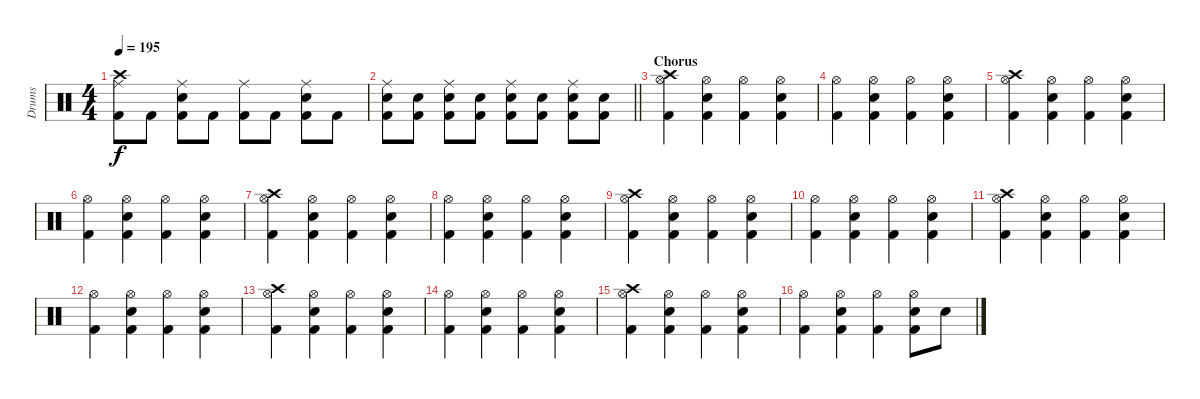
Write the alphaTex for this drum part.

\track ("Drums" "Drums") {instrument percussion}
\staff {score}
\articulation defaults
\ts (4 4)
\tempo 195
\clef neutral
\ks c
("Crash high (hit)" "Ride (middle)" "Kick (hit) 2").8{dy f} "Kick (hit) 2".8 ("Ride (middle)" "Snare (hit) 2" "Kick (hit) 2").8 "Kick (hit) 2".8 ("Ride (middle)" "Kick (hit) 2").8 "Kick (hit) 2".8 ("Ride (middle)" "Snare (hit) 2" "Kick (hit) 2").8 "Kick (hit) 2".8 |
\barLineRight lightlight
("Ride (middle)" "Snare (hit) 2" "Kick (hit) 2").8 ("Snare (hit) 2" "Kick (hit) 2").8 ("Ride (middle)" "Snare (hit) 2" "Kick (hit) 2").8 ("Snare (hit) 2" "Kick (hit) 2").8 ("Ride (middle)" "Snare (hit) 2" "Kick (hit) 2").8 ("Snare (hit) 2" "Kick (hit) 2").8 ("Ride (middle)" "Snare (hit) 2" "Kick (hit) 2").8 ("Snare (hit) 2" "Kick (hit) 2").8 |
\section ("" "Chorus")
("Crash high (hit)" "Hi-Hat (open)" "Kick (hit) 2").4 ("Hi-Hat (open)" "Snare (hit) 2" "Kick (hit) 2").4 ("Hi-Hat (open)" "Kick (hit) 2").4 ("Hi-Hat (open)" "Snare (hit) 2" "Kick (hit) 2").4 |
("Hi-Hat (open)" "Kick (hit) 2").4 ("Hi-Hat (open)" "Snare (hit) 2" "Kick (hit) 2").4 ("Hi-Hat (open)" "Kick (hit) 2").4 ("Hi-Hat (open)" "Snare (hit) 2" "Kick (hit) 2").4 |
("Crash high (hit)" "Hi-Hat (open)" "Kick (hit) 2").4 ("Hi-Hat (open)" "Snare (hit) 2" "Kick (hit) 2").4 ("Hi-Hat (open)" "Kick (hit) 2").4 ("Hi-Hat (open)" "Snare (hit) 2" "Kick (hit) 2").4 |
("Hi-Hat (open)" "Kick (hit) 2").4 ("Hi-Hat (open)" "Snare (hit) 2" "Kick (hit) 2").4 ("Hi-Hat (open)" "Kick (hit) 2").4 ("Hi-Hat (open)" "Snare (hit) 2" "Kick (hit) 2").4 |
("Crash high (hit)" "Hi-Hat (open)" "Kick (hit) 2").4 ("Hi-Hat (open)" "Snare (hit) 2" "Kick (hit) 2").4 ("Hi-Hat (open)" "Kick (hit) 2").4 ("Hi-Hat (open)" "Snare (hit) 2" "Kick (hit) 2").4 |
("Hi-Hat (open)" "Kick (hit) 2").4 ("Hi-Hat (open)" "Snare (hit) 2" "Kick (hit) 2").4 ("Hi-Hat (open)" "Kick (hit) 2").4 ("Hi-Hat (open)" "Snare (hit) 2" "Kick (hit) 2").4 |
("Crash high (hit)" "Hi-Hat (open)" "Kick (hit) 2").4 ("Hi-Hat (open)" "Snare (hit) 2" "Kick (hit) 2").4 ("Hi-Hat (open)" "Kick (hit) 2").4 ("Hi-Hat (open)" "Snare (hit) 2" "Kick (hit) 2").4 |
("Hi-Hat (open)" "Kick (hit) 2").4 ("Hi-Hat (open)" "Snare (hit) 2" "Kick (hit) 2").4 ("Hi-Hat (open)" "Kick (hit) 2").4 ("Hi-Hat (open)" "Snare (hit) 2" "Kick (hit) 2").4 |
("Crash high (hit)" "Hi-Hat (open)" "Kick (hit) 2").4 ("Hi-Hat (open)" "Snare (hit) 2" "Kick (hit) 2").4 ("Hi-Hat (open)" "Kick (hit) 2").4 ("Hi-Hat (open)" "Snare (hit) 2" "Kick (hit) 2").4 |
("Hi-Hat (open)" "Kick (hit) 2").4 ("Hi-Hat (open)" "Snare (hit) 2" "Kick (hit) 2").4 ("Hi-Hat (open)" "Kick (hit) 2").4 ("Hi-Hat (open)" "Snare (hit) 2" "Kick (hit) 2").4 |
("Crash high (hit)" "Hi-Hat (open)" "Kick (hit) 2").4 ("Hi-Hat (open)" "Snare (hit) 2" "Kick (hit) 2").4 ("Hi-Hat (open)" "Kick (hit) 2").4 ("Hi-Hat (open)" "Snare (hit) 2" "Kick (hit) 2").4 |
("Hi-Hat (open)" "Kick (hit) 2").4 ("Hi-Hat (open)" "Snare (hit) 2" "Kick (hit) 2").4 ("Hi-Hat (open)" "Kick (hit) 2").4 ("Hi-Hat (open)" "Snare (hit) 2" "Kick (hit) 2").4 |
("Crash high (hit)" "Hi-Hat (open)" "Kick (hit) 2").4 ("Hi-Hat (open)" "Snare (hit) 2" "Kick (hit) 2").4 ("Hi-Hat (open)" "Kick (hit) 2").4 ("Hi-Hat (open)" "Snare (hit) 2" "Kick (hit) 2").4 |
("Hi-Hat (open)" "Kick (hit) 2").4 ("Hi-Hat (open)" "Snare (hit) 2" "Kick (hit) 2").4 ("Hi-Hat (open)" "Kick (hit) 2").4 ("Hi-Hat (open)" "Snare (hit) 2" "Kick (hit) 2").8 "Snare (hit) 2".8
